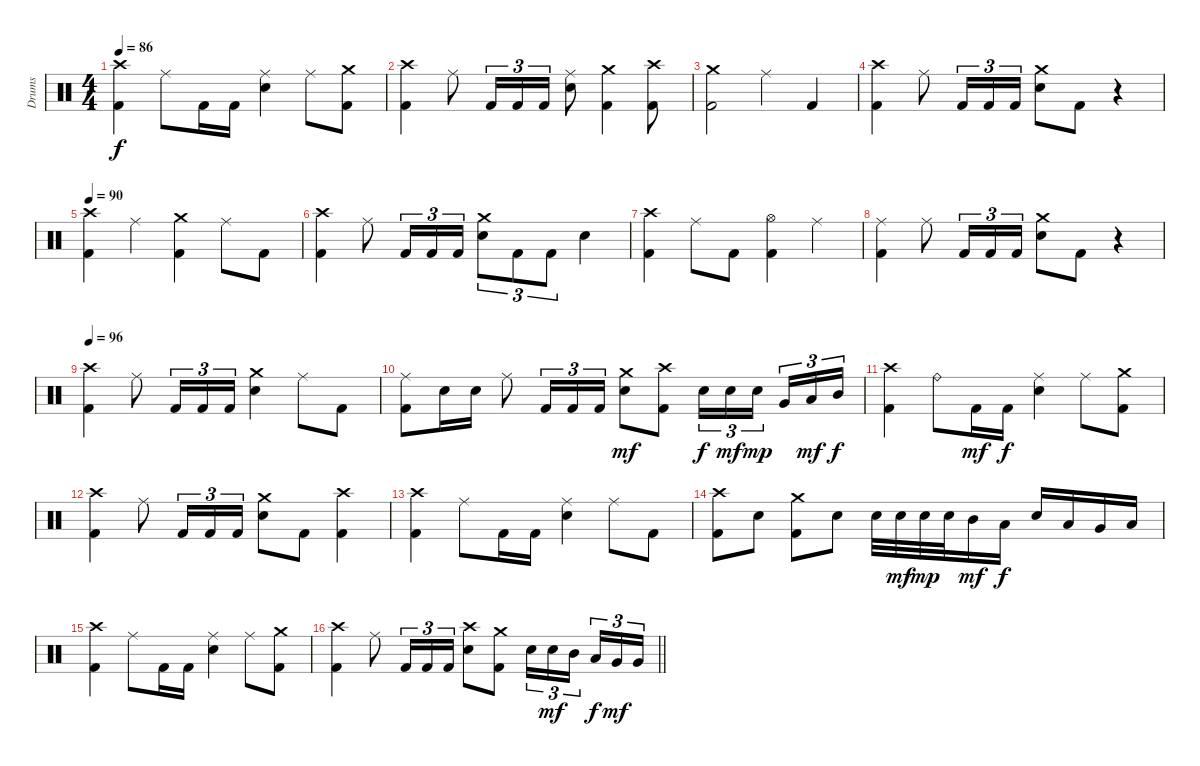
\track ("Drums" "Drums") {instrument percussion}
\staff {score}
\articulation defaults
\ts (4 4)
\tempo 86
\clef neutral
\ks c
("Crash high (hit)" "Kick (hit) 2").4{dy f} "Ride (middle)".8 "Kick (hit) 2".16 "Kick (hit) 2".16 ("Ride (middle)" "Electric Snare (hit)").4 "Ride (middle)".8 ("Crash medium (hit)" "Kick (hit) 2").8 |
("Crash high (hit)" "Kick (hit) 2").4 "Ride (middle)".8 "Kick (hit) 2".16{tu (3 2)} "Kick (hit) 2".16{tu (3 2)} "Kick (hit) 2".16{tu (3 2)} ("Ride (middle)" "Electric Snare (hit)").8 ("Crash medium (hit)" "Kick (hit) 2").4 ("Crash high (hit)" "Kick (hit) 2").8 |
("Crash medium (hit)" "Kick (hit) 2").2 "Ride (middle)".4 "Kick (hit) 2".4 |
("Crash high (hit)" "Kick (hit) 2").4 "Ride (middle)".8 "Kick (hit) 2".16{tu (3 2)} "Kick (hit) 2".16{tu (3 2)} "Kick (hit) 2".16{tu (3 2)} ("Crash medium (hit)" "Electric Snare (hit)").8 "Kick (hit) 2".8 r.4 |
\tempo 90
("Crash high (hit)" "Kick (hit) 2").4 "Ride (middle)".4 ("Crash medium (hit)" "Kick (hit) 2").4 "Ride (middle)".8 "Kick (hit) 2".8 |
("Crash high (hit)" "Kick (hit) 2").4 "Ride (middle)".8 "Kick (hit) 2".16{tu (3 2)} "Kick (hit) 2".16{tu (3 2)} "Kick (hit) 2".16{tu (3 2)} ("Crash medium (hit)" "Electric Snare (hit)").8{tu (3 2)} "Kick (hit) 2".8{tu (3 2)} "Kick (hit) 2".8{tu (3 2)} "Electric Snare (hit)".4 |
("Crash high (hit)" "Kick (hit) 2").4 "Ride (middle)".8 "Kick (hit) 2".8 ("Hi-Hat (open)" "Kick (hit) 2").4 "Ride (middle)".4 |
("Ride (middle)" "Kick (hit) 2").4 "Ride (middle)".8 "Kick (hit) 2".16{tu (3 2)} "Kick (hit) 2".16{tu (3 2)} "Kick (hit) 2".16{tu (3 2)} ("Crash medium (hit)" "Electric Snare (hit)").8 "Kick (hit) 2".8 r.4 |
\tempo 96
("Crash high (hit)" "Kick (hit) 2").4 "Ride (middle)".8 "Kick (hit) 2".16{tu (3 2)} "Kick (hit) 2".16{tu (3 2)} "Kick (hit) 2".16{tu (3 2)} ("Crash medium (hit)" "Electric Snare (hit)").4 "Ride (middle)".8 "Kick (hit) 2".8 |
("Ride (middle)" "Kick (hit) 2").8 "Electric Snare (hit)".16 "Electric Snare (hit)".16 "Ride (middle)".8 "Kick (hit) 2".16{tu (3 2)} "Kick (hit) 2".16{tu (3 2)} "Kick (hit) 2".16{tu (3 2)} ("Crash medium (hit)" "Electric Snare (hit)").8{dy mf} ("Crash high (hit)" "Kick (hit) 2").8 "Electric Snare (hit)".16{tu (3 2) dy f} "Electric Snare (hit)".16{tu (3 2) dy mf} "Electric Snare (hit)".16{tu (3 2) dy mp beam splitsecondary} "Very Low Tom (hit)".16{tu (3 2)} "Low Tom (hit)".16{tu (3 2) dy mf} "Mid Tom (hit)".16{tu (3 2) dy f} |
("Crash high (hit)" "Kick (hit) 2").4 "Ride (bell)".8 "Kick (hit) 2".16{dy mf} "Kick (hit) 2".16{dy f} ("Ride (middle)" "Electric Snare (hit)").4 "Ride (middle)".8 ("Crash medium (hit)" "Kick (hit) 2").8 |
("Crash high (hit)" "Kick (hit) 2").4 "Ride (middle)".8 "Kick (hit) 2".16{tu (3 2)} "Kick (hit) 2".16{tu (3 2)} "Kick (hit) 2".16{tu (3 2)} ("Crash medium (hit)" "Electric Snare (hit)").8 "Kick (hit) 2".8 ("Crash high (hit)" "Kick (hit) 2").4 |
("Crash high (hit)" "Kick (hit) 2").4 "Ride (middle)".8 "Kick (hit) 2".16 "Kick (hit) 2".16 ("Ride (middle)" "Electric Snare (hit)").4 "Ride (middle)".8 "Kick (hit) 2".8 |
("Crash high (hit)" "Kick (hit) 2").8 "Electric Snare (hit)".8 ("Crash medium (hit)" "Kick (hit) 2").8 "Electric Snare (hit)".8 "Electric Snare (hit)".32 "Electric Snare (hit)".32{dy mf} "Electric Snare (hit)".32{dy mp} "Electric Snare (hit)".32 "Mid Tom (hit)".16{dy mf} "Low Tom (hit)".16{dy f} "Electric Snare (hit)".16 "Low Tom (hit)".16 "Very Low Tom (hit)".16 "Low Floor Tom (hit)".16 |
("Crash high (hit)" "Kick (hit) 2").4 "Ride (middle)".8 "Kick (hit) 2".16 "Kick (hit) 2".16 ("Ride (middle)" "Electric Snare (hit)").4 "Ride (middle)".8 ("Crash medium (hit)" "Kick (hit) 2").8 |
\barLineRight lightlight
("Crash high (hit)" "Kick (hit) 2").4 "Ride (middle)".8 "Kick (hit) 2".16{tu (3 2)} "Kick (hit) 2".16{tu (3 2)} "Kick (hit) 2".16{tu (3 2)} ("Crash high (hit)" "Electric Snare (hit)").8 ("Crash medium (hit)" "Kick (hit) 2").8 "Electric Snare (hit)".16{tu (3 2)} "Electric Snare (hit)".16{tu (3 2) dy mf} "Mid Tom (hit)".16{tu (3 2) beam splitsecondary} "Low Tom (hit)".16{tu (3 2) dy f} "Very Low Tom (hit)".16{tu (3 2) dy mf} "Very Low Tom (hit)".16{tu (3 2)}
